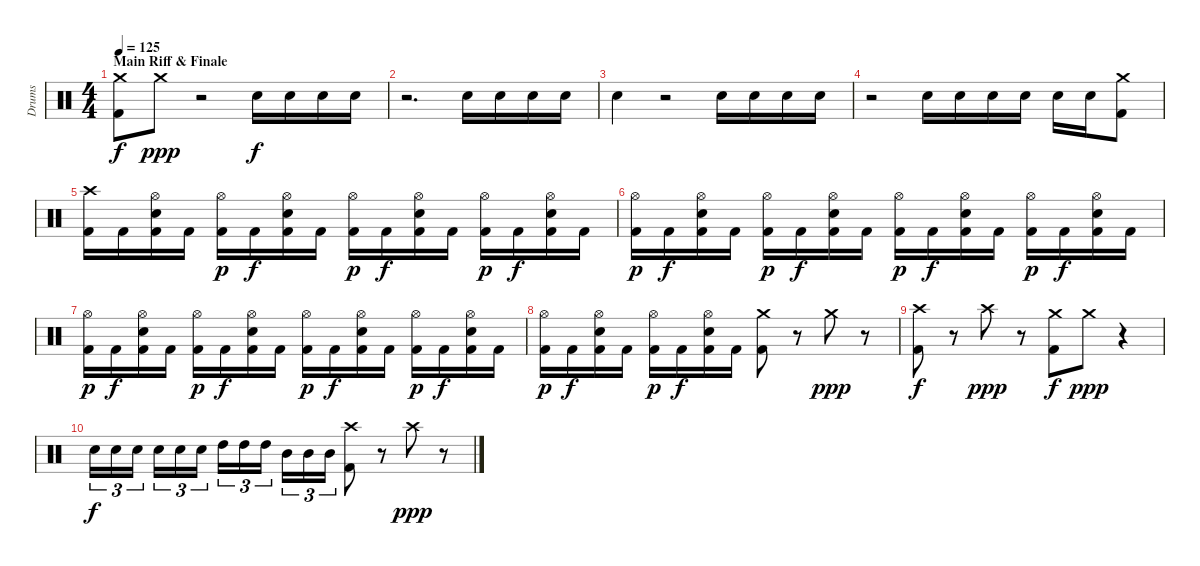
\track ("Drums" "Drums") {instrument percussion}
\staff {score}
\articulation defaults
\ts (4 4)
\section ("" "Main Riff & Finale")
\tempo 125
\clef neutral
\ks c
("Crash medium (hit)" "Kick (hit) 2").8{dy f} "Crash medium (hit)".8{dy ppp} r.2 "Snare (hit) 2".16{dy f} "Snare (hit) 2".16 "Snare (hit) 2".16 "Snare (hit) 2".16 |
r.2{d} "Snare (hit) 2".16 "Snare (hit) 2".16 "Snare (hit) 2".16 "Snare (hit) 2".16 |
"Snare (hit) 2".4 r.2 "Snare (hit) 2".16 "Snare (hit) 2".16 "Snare (hit) 2".16 "Snare (hit) 2".16 |
r.2 "Snare (hit) 2".16 "Snare (hit) 2".16 "Snare (hit) 2".16 "Snare (hit) 2".16 "Snare (hit) 2".16 "Snare (hit) 2".16 ("Crash medium (hit)" "Kick (hit) 2").8 |
("Crash high (hit)" "Kick (hit) 2").16 "Kick (hit) 2".16 ("Hi-Hat (open)" "Snare (hit) 2" "Kick (hit) 2").16 "Kick (hit) 2".16 ("Hi-Hat (open)" "Kick (hit) 2").16{dy p} "Kick (hit) 2".16{dy f} ("Hi-Hat (open)" "Snare (hit) 2" "Kick (hit) 2").16 "Kick (hit) 2".16 ("Hi-Hat (open)" "Kick (hit) 2").16{dy p} "Kick (hit) 2".16{dy f} ("Hi-Hat (open)" "Snare (hit) 2" "Kick (hit) 2").16 "Kick (hit) 2".16 ("Hi-Hat (open)" "Kick (hit) 2").16{dy p} "Kick (hit) 2".16{dy f} ("Hi-Hat (open)" "Snare (hit) 2" "Kick (hit) 2").16 "Kick (hit) 2".16 |
("Hi-Hat (open)" "Kick (hit) 2").16{dy p} "Kick (hit) 2".16{dy f} ("Hi-Hat (open)" "Snare (hit) 2" "Kick (hit) 2").16 "Kick (hit) 2".16 ("Hi-Hat (open)" "Kick (hit) 2").16{dy p} "Kick (hit) 2".16{dy f} ("Hi-Hat (open)" "Snare (hit) 2" "Kick (hit) 2").16 "Kick (hit) 2".16 ("Hi-Hat (open)" "Kick (hit) 2").16{dy p} "Kick (hit) 2".16{dy f} ("Hi-Hat (open)" "Snare (hit) 2" "Kick (hit) 2").16 "Kick (hit) 2".16 ("Hi-Hat (open)" "Kick (hit) 2").16{dy p} "Kick (hit) 2".16{dy f} ("Hi-Hat (open)" "Snare (hit) 2" "Kick (hit) 2").16 "Kick (hit) 2".16 |
("Hi-Hat (open)" "Kick (hit) 2").16{dy p} "Kick (hit) 2".16{dy f} ("Hi-Hat (open)" "Snare (hit) 2" "Kick (hit) 2").16 "Kick (hit) 2".16 ("Hi-Hat (open)" "Kick (hit) 2").16{dy p} "Kick (hit) 2".16{dy f} ("Hi-Hat (open)" "Snare (hit) 2" "Kick (hit) 2").16 "Kick (hit) 2".16 ("Hi-Hat (open)" "Kick (hit) 2").16{dy p} "Kick (hit) 2".16{dy f} ("Hi-Hat (open)" "Snare (hit) 2" "Kick (hit) 2").16 "Kick (hit) 2".16 ("Hi-Hat (open)" "Kick (hit) 2").16{dy p} "Kick (hit) 2".16{dy f} ("Hi-Hat (open)" "Snare (hit) 2" "Kick (hit) 2").16 "Kick (hit) 2".16 |
("Hi-Hat (open)" "Kick (hit) 2").16{dy p} "Kick (hit) 2".16{dy f} ("Hi-Hat (open)" "Snare (hit) 2" "Kick (hit) 2").16 "Kick (hit) 2".16 ("Hi-Hat (open)" "Kick (hit) 2").16{dy p} "Kick (hit) 2".16{dy f} ("Hi-Hat (open)" "Snare (hit) 2" "Kick (hit) 2").16 "Kick (hit) 2".16 ("Crash medium (hit)" "Kick (hit) 2").8 r.8 "Crash medium (hit)".8{dy ppp} r.8 |
("Crash high (hit)" "Kick (hit) 2").8{dy f} r.8 "Crash high (hit)".8{dy ppp} r.8 ("Crash medium (hit)" "Kick (hit) 2").8{dy f} "Crash medium (hit)".8{dy ppp} r.4 |
"Snare (hit) 2".16{tu (3 2) dy f} "Snare (hit) 2".16{tu (3 2)} "Snare (hit) 2".16{tu (3 2)} "Snare (hit) 2".16{tu (3 2)} "Snare (hit) 2".16{tu (3 2)} "Snare (hit) 2".16{tu (3 2)} "High Tom (hit)".16{tu (3 2)} "High Tom (hit)".16{tu (3 2)} "High Tom (hit)".16{tu (3 2)} "Mid Tom (hit)".16{tu (3 2)} "Mid Tom (hit)".16{tu (3 2)} "Mid Tom (hit)".16{tu (3 2)} ("Crash high (hit)" "Kick (hit) 2").8 r.8 "Crash high (hit)".8{dy ppp} r.8
